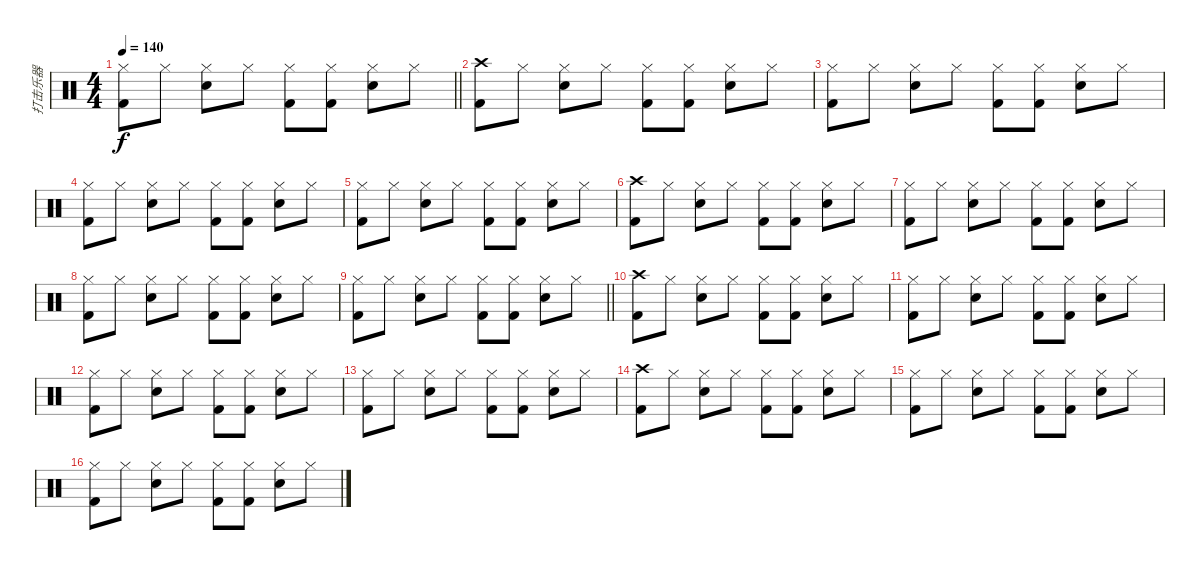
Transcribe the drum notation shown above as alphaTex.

\track ("打击乐器" "打击乐器") {instrument percussion}
\staff {score}
\articulation defaults
\ts (4 4)
\tempo 140
\clef neutral
\barLineRight lightlight
\ks c
("Hi-Hat (closed)" "Kick (hit) 2").8{dy f} "Hi-Hat (closed)".8 ("Hi-Hat (closed)" "Electric Snare (hit)").8 "Hi-Hat (closed)".8 ("Hi-Hat (closed)" "Kick (hit) 2").8 ("Hi-Hat (closed)" "Kick (hit) 2").8 ("Hi-Hat (closed)" "Electric Snare (hit)").8 "Hi-Hat (closed)".8 |
("Crash high (hit)" "Kick (hit) 2").8 "Hi-Hat (closed)".8 ("Hi-Hat (closed)" "Electric Snare (hit)").8 "Hi-Hat (closed)".8 ("Hi-Hat (closed)" "Kick (hit) 2").8 ("Hi-Hat (closed)" "Kick (hit) 2").8 ("Hi-Hat (closed)" "Electric Snare (hit)").8 "Hi-Hat (closed)".8 |
("Hi-Hat (closed)" "Kick (hit) 2").8 "Hi-Hat (closed)".8 ("Hi-Hat (closed)" "Electric Snare (hit)").8 "Hi-Hat (closed)".8 ("Hi-Hat (closed)" "Kick (hit) 2").8 ("Hi-Hat (closed)" "Kick (hit) 2").8 ("Hi-Hat (closed)" "Electric Snare (hit)").8 "Hi-Hat (closed)".8 |
("Hi-Hat (closed)" "Kick (hit) 2").8 "Hi-Hat (closed)".8 ("Hi-Hat (closed)" "Electric Snare (hit)").8 "Hi-Hat (closed)".8 ("Hi-Hat (closed)" "Kick (hit) 2").8 ("Hi-Hat (closed)" "Kick (hit) 2").8 ("Hi-Hat (closed)" "Electric Snare (hit)").8 "Hi-Hat (closed)".8 |
("Hi-Hat (closed)" "Kick (hit) 2").8 "Hi-Hat (closed)".8 ("Hi-Hat (closed)" "Electric Snare (hit)").8 "Hi-Hat (closed)".8 ("Hi-Hat (closed)" "Kick (hit) 2").8 ("Hi-Hat (closed)" "Kick (hit) 2").8 ("Hi-Hat (closed)" "Electric Snare (hit)").8 "Hi-Hat (closed)".8 |
("Crash high (hit)" "Kick (hit) 2").8 "Hi-Hat (closed)".8 ("Hi-Hat (closed)" "Electric Snare (hit)").8 "Hi-Hat (closed)".8 ("Hi-Hat (closed)" "Kick (hit) 2").8 ("Hi-Hat (closed)" "Kick (hit) 2").8 ("Hi-Hat (closed)" "Electric Snare (hit)").8 "Hi-Hat (closed)".8 |
("Hi-Hat (closed)" "Kick (hit) 2").8 "Hi-Hat (closed)".8 ("Hi-Hat (closed)" "Electric Snare (hit)").8 "Hi-Hat (closed)".8 ("Hi-Hat (closed)" "Kick (hit) 2").8 ("Hi-Hat (closed)" "Kick (hit) 2").8 ("Hi-Hat (closed)" "Electric Snare (hit)").8 "Hi-Hat (closed)".8 |
("Hi-Hat (closed)" "Kick (hit) 2").8 "Hi-Hat (closed)".8 ("Hi-Hat (closed)" "Electric Snare (hit)").8 "Hi-Hat (closed)".8 ("Hi-Hat (closed)" "Kick (hit) 2").8 ("Hi-Hat (closed)" "Kick (hit) 2").8 ("Hi-Hat (closed)" "Electric Snare (hit)").8 "Hi-Hat (closed)".8 |
\barLineRight lightlight
("Hi-Hat (closed)" "Kick (hit) 2").8 "Hi-Hat (closed)".8 ("Hi-Hat (closed)" "Electric Snare (hit)").8 "Hi-Hat (closed)".8 ("Hi-Hat (closed)" "Kick (hit) 2").8 ("Hi-Hat (closed)" "Kick (hit) 2").8 ("Hi-Hat (closed)" "Electric Snare (hit)").8 "Hi-Hat (closed)".8 |
("Crash high (hit)" "Kick (hit) 2").8 "Hi-Hat (closed)".8 ("Hi-Hat (closed)" "Electric Snare (hit)").8 "Hi-Hat (closed)".8 ("Hi-Hat (closed)" "Kick (hit) 2").8 ("Hi-Hat (closed)" "Kick (hit) 2").8 ("Hi-Hat (closed)" "Electric Snare (hit)").8 "Hi-Hat (closed)".8 |
("Hi-Hat (closed)" "Kick (hit) 2").8 "Hi-Hat (closed)".8 ("Hi-Hat (closed)" "Electric Snare (hit)").8 "Hi-Hat (closed)".8 ("Hi-Hat (closed)" "Kick (hit) 2").8 ("Hi-Hat (closed)" "Kick (hit) 2").8 ("Hi-Hat (closed)" "Electric Snare (hit)").8 "Hi-Hat (closed)".8 |
("Hi-Hat (closed)" "Kick (hit) 2").8 "Hi-Hat (closed)".8 ("Hi-Hat (closed)" "Electric Snare (hit)").8 "Hi-Hat (closed)".8 ("Hi-Hat (closed)" "Kick (hit) 2").8 ("Hi-Hat (closed)" "Kick (hit) 2").8 ("Hi-Hat (closed)" "Electric Snare (hit)").8 "Hi-Hat (closed)".8 |
("Hi-Hat (closed)" "Kick (hit) 2").8 "Hi-Hat (closed)".8 ("Hi-Hat (closed)" "Electric Snare (hit)").8 "Hi-Hat (closed)".8 ("Hi-Hat (closed)" "Kick (hit) 2").8 ("Hi-Hat (closed)" "Kick (hit) 2").8 ("Hi-Hat (closed)" "Electric Snare (hit)").8 "Hi-Hat (closed)".8 |
("Crash high (hit)" "Kick (hit) 2").8 "Hi-Hat (closed)".8 ("Hi-Hat (closed)" "Electric Snare (hit)").8 "Hi-Hat (closed)".8 ("Hi-Hat (closed)" "Kick (hit) 2").8 ("Hi-Hat (closed)" "Kick (hit) 2").8 ("Hi-Hat (closed)" "Electric Snare (hit)").8 "Hi-Hat (closed)".8 |
("Hi-Hat (closed)" "Kick (hit) 2").8 "Hi-Hat (closed)".8 ("Hi-Hat (closed)" "Electric Snare (hit)").8 "Hi-Hat (closed)".8 ("Hi-Hat (closed)" "Kick (hit) 2").8 ("Hi-Hat (closed)" "Kick (hit) 2").8 ("Hi-Hat (closed)" "Electric Snare (hit)").8 "Hi-Hat (closed)".8 |
("Hi-Hat (closed)" "Kick (hit) 2").8 "Hi-Hat (closed)".8 ("Hi-Hat (closed)" "Electric Snare (hit)").8 "Hi-Hat (closed)".8 ("Hi-Hat (closed)" "Kick (hit) 2").8 ("Hi-Hat (closed)" "Kick (hit) 2").8 ("Hi-Hat (closed)" "Electric Snare (hit)").8 "Hi-Hat (closed)".8
